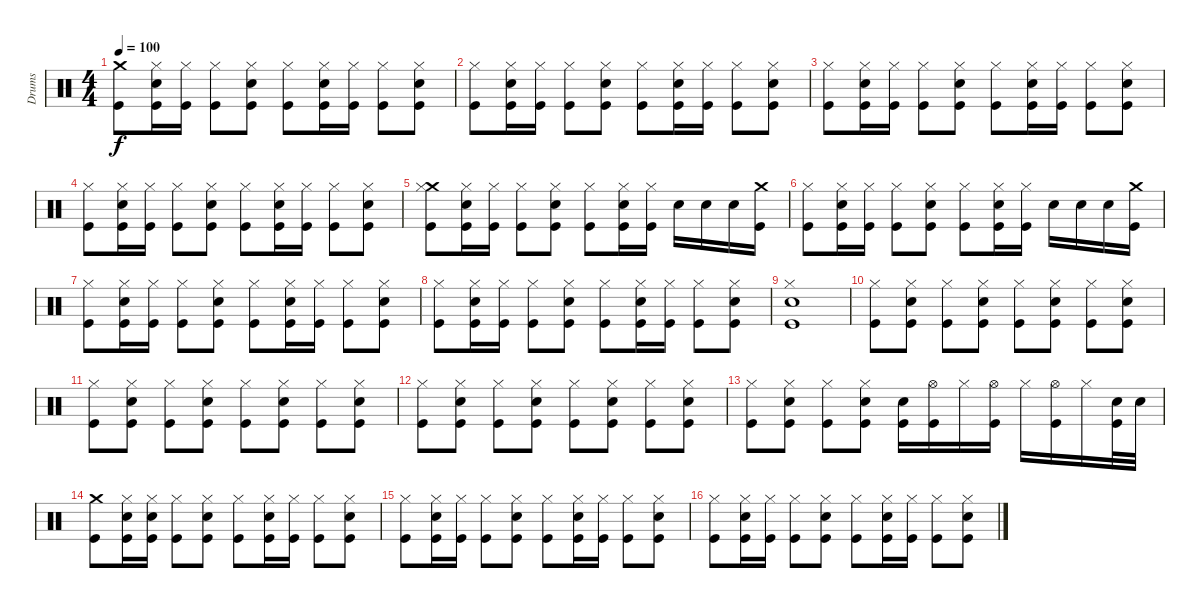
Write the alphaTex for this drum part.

\track ("Drums" "Drums") {instrument percussion}
\staff {score}
\articulation defaults
\ts (4 4)
\tempo 100
\clef neutral
\ks c
("Crash medium (hit)" "Kick (hit)").8{dy f} ("Electric Snare (hit)" "Hi-Hat (closed)" "Kick (hit)").16 ("Hi-Hat (closed)" "Kick (hit)").16 ("Hi-Hat (closed)" "Kick (hit)").8 ("Electric Snare (hit)" "Hi-Hat (closed)" "Kick (hit)").8 ("Hi-Hat (closed)" "Kick (hit)").8 ("Electric Snare (hit)" "Hi-Hat (closed)" "Kick (hit)").16 ("Hi-Hat (closed)" "Kick (hit)").16 ("Hi-Hat (closed)" "Kick (hit)").8 ("Electric Snare (hit)" "Hi-Hat (closed)" "Kick (hit)").8 |
("Hi-Hat (closed)" "Kick (hit)").8 ("Electric Snare (hit)" "Hi-Hat (closed)" "Kick (hit)").16 ("Hi-Hat (closed)" "Kick (hit)").16 ("Hi-Hat (closed)" "Kick (hit)").8 ("Electric Snare (hit)" "Hi-Hat (closed)" "Kick (hit)").8 ("Hi-Hat (closed)" "Kick (hit)").8 ("Electric Snare (hit)" "Hi-Hat (closed)" "Kick (hit)").16 ("Hi-Hat (closed)" "Kick (hit)").16 ("Hi-Hat (closed)" "Kick (hit)").8 ("Electric Snare (hit)" "Hi-Hat (closed)" "Kick (hit)").8 |
("Hi-Hat (closed)" "Kick (hit)").8 ("Electric Snare (hit)" "Hi-Hat (closed)" "Kick (hit)").16 ("Hi-Hat (closed)" "Kick (hit)").16 ("Hi-Hat (closed)" "Kick (hit)").8 ("Electric Snare (hit)" "Hi-Hat (closed)" "Kick (hit)").8 ("Hi-Hat (closed)" "Kick (hit)").8 ("Electric Snare (hit)" "Hi-Hat (closed)" "Kick (hit)").16 ("Hi-Hat (closed)" "Kick (hit)").16 ("Hi-Hat (closed)" "Kick (hit)").8 ("Electric Snare (hit)" "Hi-Hat (closed)" "Kick (hit)").8 |
("Hi-Hat (closed)" "Kick (hit)").8 ("Electric Snare (hit)" "Hi-Hat (closed)" "Kick (hit)").16 ("Hi-Hat (closed)" "Kick (hit)").16 ("Hi-Hat (closed)" "Kick (hit)").8 ("Electric Snare (hit)" "Hi-Hat (closed)" "Kick (hit)").8 ("Hi-Hat (closed)" "Kick (hit)").8 ("Electric Snare (hit)" "Hi-Hat (closed)" "Kick (hit)").16 ("Hi-Hat (closed)" "Kick (hit)").16 ("Hi-Hat (closed)" "Kick (hit)").8 ("Electric Snare (hit)" "Hi-Hat (closed)" "Kick (hit)").8 |
("Crash medium (hit)" "Hi-Hat (closed)" "Kick (hit)").8 ("Electric Snare (hit)" "Hi-Hat (closed)" "Kick (hit)").16 ("Hi-Hat (closed)" "Kick (hit)").16 ("Hi-Hat (closed)" "Kick (hit)").8 ("Electric Snare (hit)" "Hi-Hat (closed)" "Kick (hit)").8 ("Hi-Hat (closed)" "Kick (hit)").8 ("Electric Snare (hit)" "Hi-Hat (closed)" "Kick (hit)").16 ("Hi-Hat (closed)" "Kick (hit)").16 "Electric Snare (hit)".16 "Electric Snare (hit)".16 "Electric Snare (hit)".16 ("Crash medium (hit)" "Kick (hit)").16 |
("Hi-Hat (closed)" "Kick (hit)").8 ("Electric Snare (hit)" "Hi-Hat (closed)" "Kick (hit)").16 ("Hi-Hat (closed)" "Kick (hit)").16 ("Hi-Hat (closed)" "Kick (hit)").8 ("Electric Snare (hit)" "Hi-Hat (closed)" "Kick (hit)").8 ("Hi-Hat (closed)" "Kick (hit)").8 ("Electric Snare (hit)" "Hi-Hat (closed)" "Kick (hit)").16 ("Hi-Hat (closed)" "Kick (hit)").16 "Electric Snare (hit)".16 "Electric Snare (hit)".16 "Electric Snare (hit)".16 ("Crash medium (hit)" "Kick (hit)").16 |
("Hi-Hat (closed)" "Kick (hit)").8 ("Electric Snare (hit)" "Hi-Hat (closed)" "Kick (hit)").16 ("Hi-Hat (closed)" "Kick (hit)").16 ("Hi-Hat (closed)" "Kick (hit)").8 ("Electric Snare (hit)" "Hi-Hat (closed)" "Kick (hit)").8 ("Hi-Hat (closed)" "Kick (hit)").8 ("Electric Snare (hit)" "Hi-Hat (closed)" "Kick (hit)").16 ("Hi-Hat (closed)" "Kick (hit)").16 ("Hi-Hat (closed)" "Kick (hit)").8 ("Electric Snare (hit)" "Hi-Hat (closed)" "Kick (hit)").8 |
("Hi-Hat (closed)" "Kick (hit)").8 ("Electric Snare (hit)" "Hi-Hat (closed)" "Kick (hit)").16 ("Hi-Hat (closed)" "Kick (hit)").16 ("Hi-Hat (closed)" "Kick (hit)").8 ("Electric Snare (hit)" "Hi-Hat (closed)" "Kick (hit)").8 ("Hi-Hat (closed)" "Kick (hit)").8 ("Electric Snare (hit)" "Hi-Hat (closed)" "Kick (hit)").16 ("Hi-Hat (closed)" "Kick (hit)").16 ("Hi-Hat (closed)" "Kick (hit)").8 ("Electric Snare (hit)" "Hi-Hat (closed)" "Kick (hit)").8 |
("Electric Snare (hit)" "Hi-Hat (closed)" "Kick (hit)").1 |
("Hi-Hat (closed)" "Kick (hit)").8 ("Electric Snare (hit)" "Hi-Hat (closed)" "Kick (hit)").8 ("Hi-Hat (closed)" "Kick (hit)").8 ("Electric Snare (hit)" "Hi-Hat (closed)" "Kick (hit)").8 ("Hi-Hat (closed)" "Kick (hit)").8 ("Electric Snare (hit)" "Hi-Hat (closed)" "Kick (hit)").8 ("Hi-Hat (closed)" "Kick (hit)").8 ("Electric Snare (hit)" "Hi-Hat (closed)" "Kick (hit)").8 |
("Hi-Hat (closed)" "Kick (hit)").8 ("Electric Snare (hit)" "Hi-Hat (closed)" "Kick (hit)").8 ("Hi-Hat (closed)" "Kick (hit)").8 ("Electric Snare (hit)" "Hi-Hat (closed)" "Kick (hit)").8 ("Hi-Hat (closed)" "Kick (hit)").8 ("Electric Snare (hit)" "Hi-Hat (closed)" "Kick (hit)").8 ("Hi-Hat (closed)" "Kick (hit)").8 ("Electric Snare (hit)" "Hi-Hat (closed)" "Kick (hit)").8 |
("Hi-Hat (closed)" "Kick (hit)").8 ("Electric Snare (hit)" "Hi-Hat (closed)" "Kick (hit)").8 ("Hi-Hat (closed)" "Kick (hit)").8 ("Electric Snare (hit)" "Hi-Hat (closed)" "Kick (hit)").8 ("Hi-Hat (closed)" "Kick (hit)").8 ("Electric Snare (hit)" "Hi-Hat (closed)" "Kick (hit)").8 ("Hi-Hat (closed)" "Kick (hit)").8 ("Electric Snare (hit)" "Hi-Hat (closed)" "Kick (hit)").8 |
("Hi-Hat (closed)" "Kick (hit)").8 ("Electric Snare (hit)" "Hi-Hat (closed)" "Kick (hit)").8 ("Hi-Hat (closed)" "Kick (hit)").8 ("Electric Snare (hit)" "Hi-Hat (closed)" "Kick (hit)").8 ("Electric Snare (hit)" "Kick (hit)").16 ("Hi-Hat (open)" "Kick (hit)").16 "Hi-Hat (closed)".16 ("Hi-Hat (open)" "Kick (hit)").16 "Hi-Hat (closed)".16 ("Hi-Hat (open)" "Kick (hit)").16 "Hi-Hat (closed)".16 ("Electric Snare (hit)" "Kick (hit)").32 "Electric Snare (hit)".32 |
("Crash medium (hit)" "Kick (hit)").8 ("Electric Snare (hit)" "Hi-Hat (closed)" "Kick (hit)").16 ("Electric Snare (hit)" "Hi-Hat (closed)" "Kick (hit)").16 ("Hi-Hat (closed)" "Kick (hit)").8 ("Electric Snare (hit)" "Hi-Hat (closed)" "Kick (hit)").8 ("Hi-Hat (closed)" "Kick (hit)").8 ("Electric Snare (hit)" "Hi-Hat (closed)" "Kick (hit)").16 ("Hi-Hat (closed)" "Kick (hit)").16 ("Hi-Hat (closed)" "Kick (hit)").8 ("Electric Snare (hit)" "Hi-Hat (closed)" "Kick (hit)").8 |
("Hi-Hat (closed)" "Kick (hit)").8 ("Electric Snare (hit)" "Hi-Hat (closed)" "Kick (hit)").16 ("Hi-Hat (closed)" "Kick (hit)").16 ("Hi-Hat (closed)" "Kick (hit)").8 ("Electric Snare (hit)" "Hi-Hat (closed)" "Kick (hit)").8 ("Hi-Hat (closed)" "Kick (hit)").8 ("Electric Snare (hit)" "Hi-Hat (closed)" "Kick (hit)").16 ("Hi-Hat (closed)" "Kick (hit)").16 ("Hi-Hat (closed)" "Kick (hit)").8 ("Electric Snare (hit)" "Hi-Hat (closed)" "Kick (hit)").8 |
("Hi-Hat (closed)" "Kick (hit)").8 ("Electric Snare (hit)" "Hi-Hat (closed)" "Kick (hit)").16 ("Hi-Hat (closed)" "Kick (hit)").16 ("Hi-Hat (closed)" "Kick (hit)").8 ("Electric Snare (hit)" "Hi-Hat (closed)" "Kick (hit)").8 ("Hi-Hat (closed)" "Kick (hit)").8 ("Electric Snare (hit)" "Hi-Hat (closed)" "Kick (hit)").16 ("Hi-Hat (closed)" "Kick (hit)").16 ("Hi-Hat (closed)" "Kick (hit)").8 ("Electric Snare (hit)" "Hi-Hat (closed)" "Kick (hit)").8
